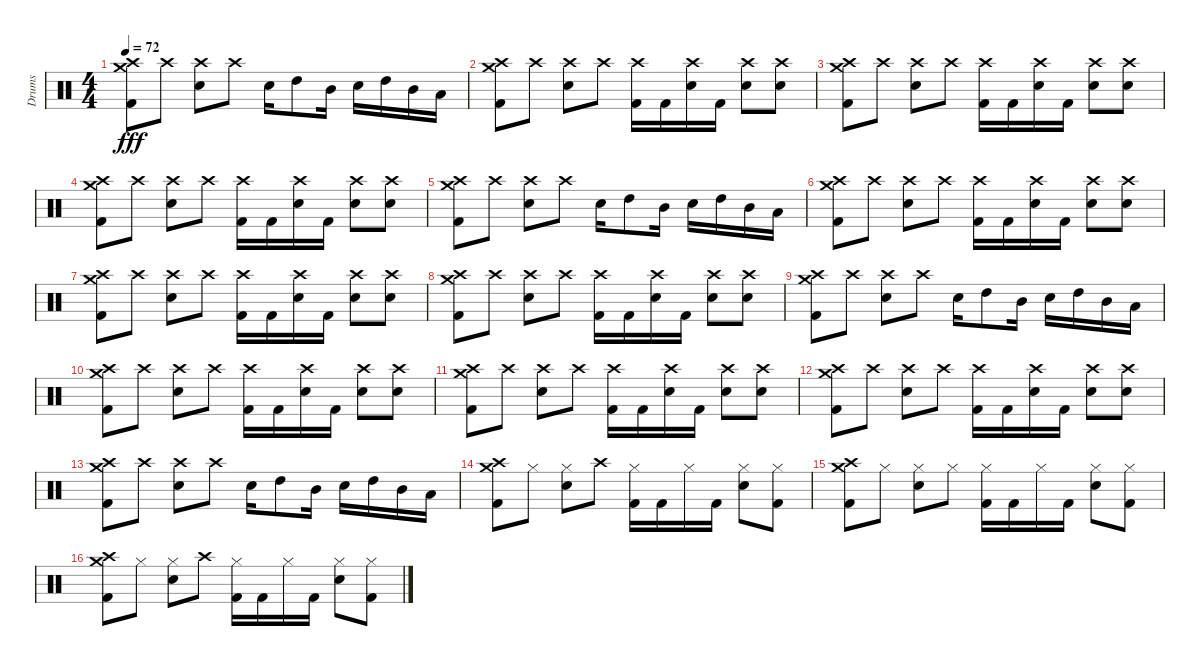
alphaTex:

\track ("Drums" "Drums") {instrument percussion}
\staff {score}
\articulation defaults
\ts (4 4)
\tempo 72
\clef neutral
\ks c
("Crash high (hit)" "Crash medium (hit)" "Kick (hit) 2").8{dy fff} "Crash high (hit)".8 ("Crash high (hit)" "Electric Snare (hit)").8 "Crash high (hit)".8 "Electric Snare (hit)".16 "High Tom (hit)".8 "Mid Tom (hit)".16 "Electric Snare (hit)".16 "High Tom (hit)".16 "Mid Tom (hit)".16 "Low Tom (hit)".16 |
("Crash high (hit)" "Crash medium (hit)" "Kick (hit) 2").8 "Crash high (hit)".8 ("Crash high (hit)" "Electric Snare (hit)").8 "Crash high (hit)".8 ("Crash high (hit)" "Kick (hit) 2").16 "Kick (hit) 2".16 ("Crash high (hit)" "Electric Snare (hit)").16 "Kick (hit) 2".16 ("Crash high (hit)" "Electric Snare (hit)").8 ("Crash high (hit)" "Electric Snare (hit)").8 |
("Crash high (hit)" "Crash medium (hit)" "Kick (hit) 2").8 "Crash high (hit)".8 ("Crash high (hit)" "Electric Snare (hit)").8 "Crash high (hit)".8 ("Crash high (hit)" "Kick (hit) 2").16 "Kick (hit) 2".16 ("Crash high (hit)" "Electric Snare (hit)").16 "Kick (hit) 2".16 ("Crash high (hit)" "Electric Snare (hit)").8 ("Crash high (hit)" "Electric Snare (hit)").8 |
("Crash high (hit)" "Crash medium (hit)" "Kick (hit) 2").8 "Crash high (hit)".8 ("Crash high (hit)" "Electric Snare (hit)").8 "Crash high (hit)".8 ("Crash high (hit)" "Kick (hit) 2").16 "Kick (hit) 2".16 ("Crash high (hit)" "Electric Snare (hit)").16 "Kick (hit) 2".16 ("Crash high (hit)" "Electric Snare (hit)").8 ("Crash high (hit)" "Electric Snare (hit)").8 |
("Crash high (hit)" "Crash medium (hit)" "Kick (hit) 2").8 "Crash high (hit)".8 ("Crash high (hit)" "Electric Snare (hit)").8 "Crash high (hit)".8 "Electric Snare (hit)".16 "High Tom (hit)".8 "Mid Tom (hit)".16 "Electric Snare (hit)".16 "High Tom (hit)".16 "Mid Tom (hit)".16 "Low Tom (hit)".16 |
("Crash high (hit)" "Crash medium (hit)" "Kick (hit) 2").8 "Crash high (hit)".8 ("Crash high (hit)" "Electric Snare (hit)").8 "Crash high (hit)".8 ("Crash high (hit)" "Kick (hit) 2").16 "Kick (hit) 2".16 ("Crash high (hit)" "Electric Snare (hit)").16 "Kick (hit) 2".16 ("Crash high (hit)" "Electric Snare (hit)").8 ("Crash high (hit)" "Electric Snare (hit)").8 |
("Crash high (hit)" "Crash medium (hit)" "Kick (hit) 2").8 "Crash high (hit)".8 ("Crash high (hit)" "Electric Snare (hit)").8 "Crash high (hit)".8 ("Crash high (hit)" "Kick (hit) 2").16 "Kick (hit) 2".16 ("Crash high (hit)" "Electric Snare (hit)").16 "Kick (hit) 2".16 ("Crash high (hit)" "Electric Snare (hit)").8 ("Crash high (hit)" "Electric Snare (hit)").8 |
("Crash high (hit)" "Crash medium (hit)" "Kick (hit) 2").8 "Crash high (hit)".8 ("Crash high (hit)" "Electric Snare (hit)").8 "Crash high (hit)".8 ("Crash high (hit)" "Kick (hit) 2").16 "Kick (hit) 2".16 ("Crash high (hit)" "Electric Snare (hit)").16 "Kick (hit) 2".16 ("Crash high (hit)" "Electric Snare (hit)").8 ("Crash high (hit)" "Electric Snare (hit)").8 |
("Crash high (hit)" "Crash medium (hit)" "Kick (hit) 2").8 "Crash high (hit)".8 ("Crash high (hit)" "Electric Snare (hit)").8 "Crash high (hit)".8 "Electric Snare (hit)".16 "High Tom (hit)".8 "Mid Tom (hit)".16 "Electric Snare (hit)".16 "High Tom (hit)".16 "Mid Tom (hit)".16 "Low Tom (hit)".16 |
("Crash high (hit)" "Crash medium (hit)" "Kick (hit) 2").8 "Crash high (hit)".8 ("Crash high (hit)" "Electric Snare (hit)").8 "Crash high (hit)".8 ("Crash high (hit)" "Kick (hit) 2").16 "Kick (hit) 2".16 ("Crash high (hit)" "Electric Snare (hit)").16 "Kick (hit) 2".16 ("Crash high (hit)" "Electric Snare (hit)").8 ("Crash high (hit)" "Electric Snare (hit)").8 |
("Crash high (hit)" "Crash medium (hit)" "Kick (hit) 2").8 "Crash high (hit)".8 ("Crash high (hit)" "Electric Snare (hit)").8 "Crash high (hit)".8 ("Crash high (hit)" "Kick (hit) 2").16 "Kick (hit) 2".16 ("Crash high (hit)" "Electric Snare (hit)").16 "Kick (hit) 2".16 ("Crash high (hit)" "Electric Snare (hit)").8 ("Crash high (hit)" "Electric Snare (hit)").8 |
("Crash high (hit)" "Crash medium (hit)" "Kick (hit) 2").8 "Crash high (hit)".8 ("Crash high (hit)" "Electric Snare (hit)").8 "Crash high (hit)".8 ("Crash high (hit)" "Kick (hit) 2").16 "Kick (hit) 2".16 ("Crash high (hit)" "Electric Snare (hit)").16 "Kick (hit) 2".16 ("Crash high (hit)" "Electric Snare (hit)").8 ("Crash high (hit)" "Electric Snare (hit)").8 |
("Crash high (hit)" "Crash medium (hit)" "Kick (hit) 2").8 "Crash high (hit)".8 ("Crash high (hit)" "Electric Snare (hit)").8 "Crash high (hit)".8 "Electric Snare (hit)".16 "High Tom (hit)".8 "Mid Tom (hit)".16 "Electric Snare (hit)".16 "High Tom (hit)".16 "Mid Tom (hit)".16 "Low Tom (hit)".16 |
("Crash high (hit)" "Crash medium (hit)" "Kick (hit) 2").8 "Hi-Hat (closed)".8 ("Hi-Hat (closed)" "Electric Snare (hit)").8 "Crash high (hit)".8 ("Hi-Hat (closed)" "Kick (hit) 2").16 "Kick (hit) 2".16 "Hi-Hat (closed)".16 "Kick (hit) 2".16 ("Hi-Hat (closed)" "Electric Snare (hit)").8 ("Hi-Hat (closed)" "Kick (hit) 2").8 |
("Crash high (hit)" "Crash medium (hit)" "Kick (hit) 2").8 "Hi-Hat (closed)".8 ("Hi-Hat (closed)" "Electric Snare (hit)").8 "Hi-Hat (closed)".8 ("Hi-Hat (closed)" "Kick (hit) 2").16 "Kick (hit) 2".16 "Hi-Hat (closed)".16 "Kick (hit) 2".16 ("Hi-Hat (closed)" "Electric Snare (hit)").8 ("Hi-Hat (closed)" "Kick (hit) 2").8 |
("Crash high (hit)" "Crash medium (hit)" "Kick (hit) 2").8 "Hi-Hat (closed)".8 ("Hi-Hat (closed)" "Electric Snare (hit)").8 "Crash high (hit)".8 ("Hi-Hat (closed)" "Kick (hit) 2").16 "Kick (hit) 2".16 "Hi-Hat (closed)".16 "Kick (hit) 2".16 ("Hi-Hat (closed)" "Electric Snare (hit)").8 ("Hi-Hat (closed)" "Kick (hit) 2").8
